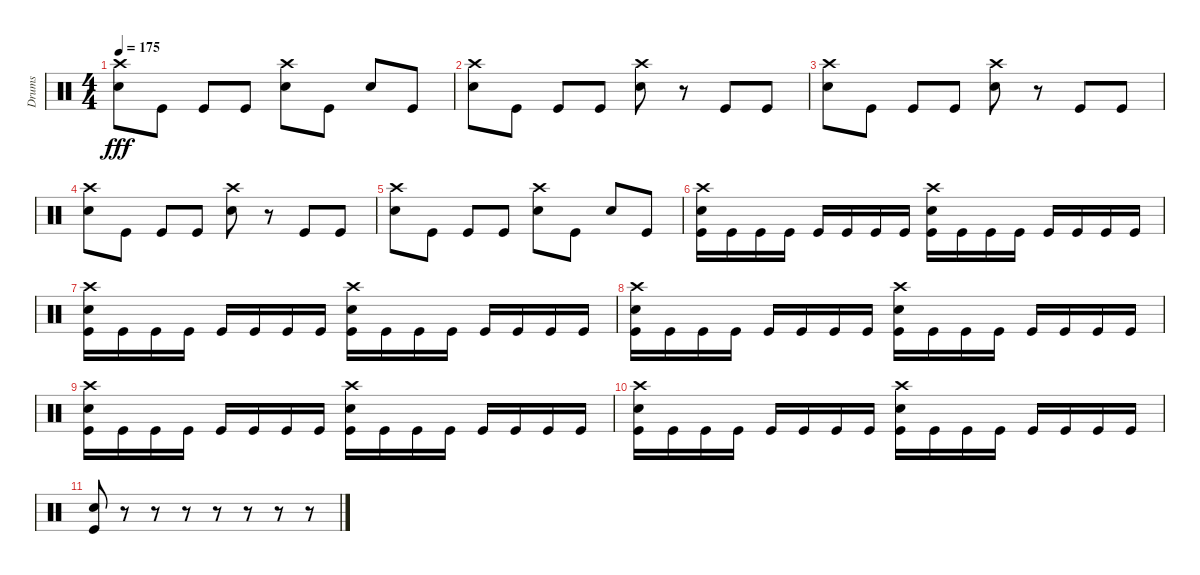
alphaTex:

\track ("Drums" "Drums") {instrument percussion}
\staff {score}
\articulation defaults
\ts (4 4)
\tempo 175
\clef neutral
\ks c
("Crash high (hit)" "Electric Snare (hit)").8{dy fff} "Kick (hit)".8 "Kick (hit)".8 "Kick (hit)".8 ("Crash high (hit)" "Electric Snare (hit)").8 "Kick (hit)".8 "Electric Snare (hit)".8 "Kick (hit)".8 |
("Crash high (hit)" "Electric Snare (hit)").8 "Kick (hit)".8 "Kick (hit)".8 "Kick (hit)".8 ("Crash high (hit)" "Electric Snare (hit)").8 r.8 "Kick (hit)".8 "Kick (hit)".8 |
("Crash high (hit)" "Electric Snare (hit)").8 "Kick (hit)".8 "Kick (hit)".8 "Kick (hit)".8 ("Crash high (hit)" "Electric Snare (hit)").8 r.8 "Kick (hit)".8 "Kick (hit)".8 |
("Crash high (hit)" "Electric Snare (hit)").8 "Kick (hit)".8 "Kick (hit)".8 "Kick (hit)".8 ("Crash high (hit)" "Electric Snare (hit)").8 r.8 "Kick (hit)".8 "Kick (hit)".8 |
("Crash high (hit)" "Electric Snare (hit)").8 "Kick (hit)".8 "Kick (hit)".8 "Kick (hit)".8 ("Crash high (hit)" "Electric Snare (hit)").8 "Kick (hit)".8 "Electric Snare (hit)".8 "Kick (hit)".8 |
("Crash high (hit)" "Electric Snare (hit)" "Kick (hit)").16 "Kick (hit)".16 "Kick (hit)".16 "Kick (hit)".16 "Kick (hit)".16 "Kick (hit)".16 "Kick (hit)".16 "Kick (hit)".16 ("Crash high (hit)" "Electric Snare (hit)" "Kick (hit)").16 "Kick (hit)".16 "Kick (hit)".16 "Kick (hit)".16 "Kick (hit)".16 "Kick (hit)".16 "Kick (hit)".16 "Kick (hit)".16 |
("Crash high (hit)" "Electric Snare (hit)" "Kick (hit)").16 "Kick (hit)".16 "Kick (hit)".16 "Kick (hit)".16 "Kick (hit)".16 "Kick (hit)".16 "Kick (hit)".16 "Kick (hit)".16 ("Crash high (hit)" "Electric Snare (hit)" "Kick (hit)").16 "Kick (hit)".16 "Kick (hit)".16 "Kick (hit)".16 "Kick (hit)".16 "Kick (hit)".16 "Kick (hit)".16 "Kick (hit)".16 |
("Crash high (hit)" "Electric Snare (hit)" "Kick (hit)").16 "Kick (hit)".16 "Kick (hit)".16 "Kick (hit)".16 "Kick (hit)".16 "Kick (hit)".16 "Kick (hit)".16 "Kick (hit)".16 ("Crash high (hit)" "Electric Snare (hit)" "Kick (hit)").16 "Kick (hit)".16 "Kick (hit)".16 "Kick (hit)".16 "Kick (hit)".16 "Kick (hit)".16 "Kick (hit)".16 "Kick (hit)".16 |
("Crash high (hit)" "Electric Snare (hit)" "Kick (hit)").16 "Kick (hit)".16 "Kick (hit)".16 "Kick (hit)".16 "Kick (hit)".16 "Kick (hit)".16 "Kick (hit)".16 "Kick (hit)".16 ("Crash high (hit)" "Electric Snare (hit)" "Kick (hit)").16 "Kick (hit)".16 "Kick (hit)".16 "Kick (hit)".16 "Kick (hit)".16 "Kick (hit)".16 "Kick (hit)".16 "Kick (hit)".16 |
("Crash high (hit)" "Electric Snare (hit)" "Kick (hit)").16 "Kick (hit)".16 "Kick (hit)".16 "Kick (hit)".16 "Kick (hit)".16 "Kick (hit)".16 "Kick (hit)".16 "Kick (hit)".16 ("Crash high (hit)" "Electric Snare (hit)" "Kick (hit)").16 "Kick (hit)".16 "Kick (hit)".16 "Kick (hit)".16 "Kick (hit)".16 "Kick (hit)".16 "Kick (hit)".16 "Kick (hit)".16 |
("Electric Snare (hit)" "Kick (hit)").8 r.8 r.8 r.8 r.8 r.8 r.8 r.8
